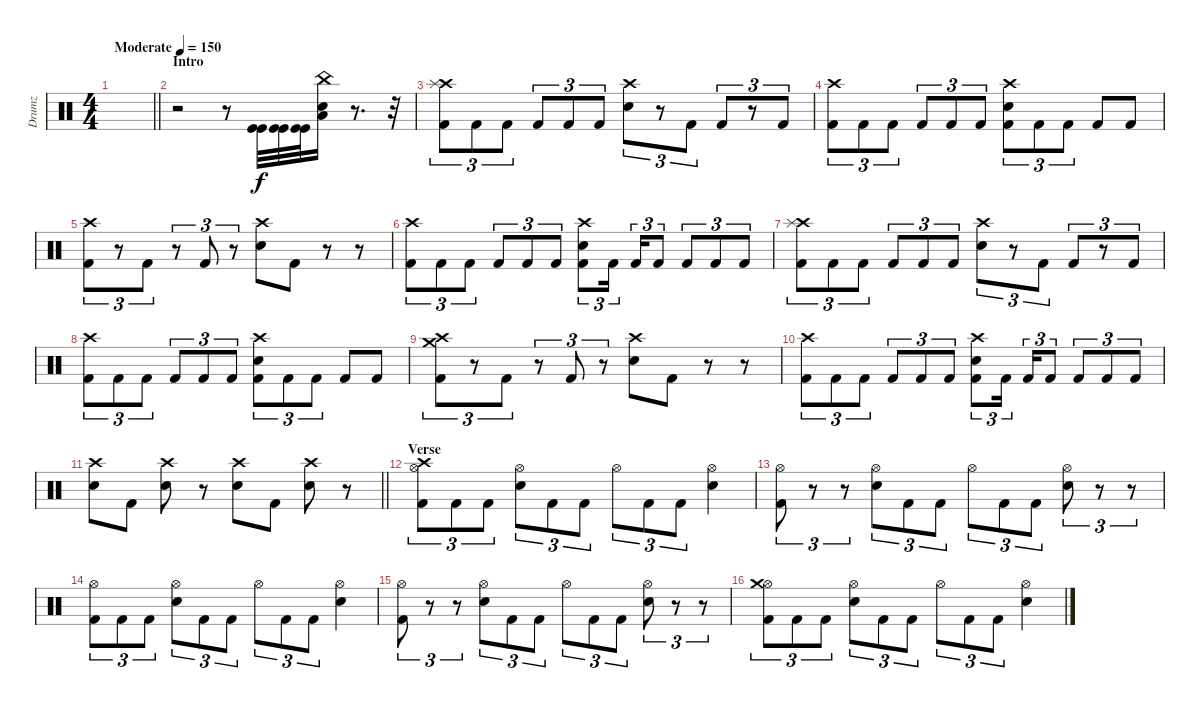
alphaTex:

\track ("Drumz" "Drumz") {instrument percussion}
\staff {score}
\articulation defaults
\ts (4 4)
\tempo (150 "Moderate")
\clef neutral
\barLineRight lightlight
\ks c
|
\section ("" "Intro")
r.2 r.8 ("Kick (hit)" "Kick (hit)").32 ("Kick (hit)" "Kick (hit)").32 ("Kick (hit)" "Kick (hit)").32 ("Low Floor Tom (hit)" "Snare (hit) 2" "China (hit)").16 r.8{d} r.32 |
("Kick (hit) 2" "Crash high (hit)" "Splash (hit)").8{tu (3 2)} "Kick (hit) 2".8{tu (3 2)} "Kick (hit) 2".8{tu (3 2)} "Kick (hit) 2".8{tu (3 2)} "Kick (hit) 2".8{tu (3 2)} "Kick (hit) 2".8{tu (3 2)} ("Crash high (hit)" "Snare (hit) 2").8{tu (3 2)} r.8{tu (3 2)} "Kick (hit) 2".8{tu (3 2)} "Kick (hit) 2".8{tu (3 2)} r.8{tu (3 2)} "Kick (hit) 2".8{tu (3 2)} |
("Kick (hit) 2" "Crash high (hit)").8{tu (3 2)} "Kick (hit) 2".8{tu (3 2)} "Kick (hit) 2".8{tu (3 2)} "Kick (hit) 2".8{tu (3 2)} "Kick (hit) 2".8{tu (3 2)} "Kick (hit) 2".8{tu (3 2)} ("Crash high (hit)" "Snare (hit) 2" "Kick (hit) 2").8{tu (3 2)} "Kick (hit) 2".8{tu (3 2)} "Kick (hit) 2".8{tu (3 2)} "Kick (hit) 2".8 "Kick (hit) 2".8 |
("Crash high (hit)" "Kick (hit) 2").8{tu (3 2)} r.8{tu (3 2)} "Kick (hit) 2".8{tu (3 2)} r.8{tu (3 2)} "Kick (hit) 2".8{tu (3 2)} r.8{tu (3 2)} ("Crash high (hit)" "Snare (hit) 2").8 "Kick (hit) 2".8 r.8 r.8 |
("Kick (hit) 2" "Crash high (hit)").8{tu (3 2)} "Kick (hit) 2".8{tu (3 2)} "Kick (hit) 2".8{tu (3 2)} "Kick (hit) 2".8{tu (3 2)} "Kick (hit) 2".8{tu (3 2)} "Kick (hit) 2".8{tu (3 2)} ("Crash high (hit)" "Snare (hit) 2" "Kick (hit) 2").8{tu (3 2)} "Kick (hit) 2".16{tu (3 2) beam splitsecondary} "Kick (hit) 2".16{tu (3 2)} "Kick (hit) 2".8{tu (3 2)} "Kick (hit) 2".8{tu (3 2)} "Kick (hit) 2".8{tu (3 2)} "Kick (hit) 2".8{tu (3 2)} |
("Kick (hit) 2" "Crash high (hit)" "Splash (hit)").8{tu (3 2)} "Kick (hit) 2".8{tu (3 2)} "Kick (hit) 2".8{tu (3 2)} "Kick (hit) 2".8{tu (3 2)} "Kick (hit) 2".8{tu (3 2)} "Kick (hit) 2".8{tu (3 2)} ("Crash high (hit)" "Snare (hit) 2").8{tu (3 2)} r.8{tu (3 2)} "Kick (hit) 2".8{tu (3 2)} "Kick (hit) 2".8{tu (3 2)} r.8{tu (3 2)} "Kick (hit) 2".8{tu (3 2)} |
("Kick (hit) 2" "Crash high (hit)").8{tu (3 2)} "Kick (hit) 2".8{tu (3 2)} "Kick (hit) 2".8{tu (3 2)} "Kick (hit) 2".8{tu (3 2)} "Kick (hit) 2".8{tu (3 2)} "Kick (hit) 2".8{tu (3 2)} ("Crash high (hit)" "Snare (hit) 2" "Kick (hit) 2").8{tu (3 2)} "Kick (hit) 2".8{tu (3 2)} "Kick (hit) 2".8{tu (3 2)} "Kick (hit) 2".8 "Kick (hit) 2".8 |
("Crash high (hit)" "Kick (hit) 2" "Crash medium (hit)").8{tu (3 2)} r.8{tu (3 2)} "Kick (hit) 2".8{tu (3 2)} r.8{tu (3 2)} "Kick (hit) 2".8{tu (3 2)} r.8{tu (3 2)} ("Crash high (hit)" "Snare (hit) 2").8 "Kick (hit) 2".8 r.8 r.8 |
("Kick (hit) 2" "Crash high (hit)").8{tu (3 2)} "Kick (hit) 2".8{tu (3 2)} "Kick (hit) 2".8{tu (3 2)} "Kick (hit) 2".8{tu (3 2)} "Kick (hit) 2".8{tu (3 2)} "Kick (hit) 2".8{tu (3 2)} ("Crash high (hit)" "Snare (hit) 2" "Kick (hit) 2").8{tu (3 2)} "Kick (hit) 2".16{tu (3 2) beam splitsecondary} "Kick (hit) 2".16{tu (3 2)} "Kick (hit) 2".8{tu (3 2)} "Kick (hit) 2".8{tu (3 2)} "Kick (hit) 2".8{tu (3 2)} "Kick (hit) 2".8{tu (3 2)} |
\barLineRight lightlight
("Crash high (hit)" "Electric Snare (hit)").8 "Kick (hit) 2".8 ("Crash high (hit)" "Electric Snare (hit)").8 r.8 ("Crash high (hit)" "Electric Snare (hit)").8 "Kick (hit) 2".8 ("Crash high (hit)" "Electric Snare (hit)").8 r.8 |
\section ("" "Verse")
("Hi-Hat (open)" "Kick (hit) 2" "Crash high (hit)").8{tu (3 2)} "Kick (hit) 2".8{tu (3 2)} "Kick (hit) 2".8{tu (3 2)} ("Hi-Hat (open)" "Snare (hit) 2").8{tu (3 2)} "Kick (hit) 2".8{tu (3 2)} "Kick (hit) 2".8{tu (3 2)} "Hi-Hat (open)".8{tu (3 2)} "Kick (hit) 2".8{tu (3 2)} "Kick (hit) 2".8{tu (3 2)} ("Hi-Hat (open)" "Snare (hit) 2").4 |
("Hi-Hat (open)" "Kick (hit) 2").8{tu (3 2)} r.8{tu (3 2)} r.8{tu (3 2)} ("Hi-Hat (open)" "Snare (hit) 2").8{tu (3 2)} "Kick (hit) 2".8{tu (3 2)} "Kick (hit) 2".8{tu (3 2)} "Hi-Hat (open)".8{tu (3 2)} "Kick (hit) 2".8{tu (3 2)} "Kick (hit) 2".8{tu (3 2)} ("Hi-Hat (open)" "Snare (hit) 2").8{tu (3 2)} r.8{tu (3 2)} r.8{tu (3 2)} |
("Hi-Hat (open)" "Kick (hit) 2").8{tu (3 2)} "Kick (hit) 2".8{tu (3 2)} "Kick (hit) 2".8{tu (3 2)} ("Hi-Hat (open)" "Snare (hit) 2").8{tu (3 2)} "Kick (hit) 2".8{tu (3 2)} "Kick (hit) 2".8{tu (3 2)} "Hi-Hat (open)".8{tu (3 2)} "Kick (hit) 2".8{tu (3 2)} "Kick (hit) 2".8{tu (3 2)} ("Hi-Hat (open)" "Snare (hit) 2").4 |
("Hi-Hat (open)" "Kick (hit) 2").8{tu (3 2)} r.8{tu (3 2)} r.8{tu (3 2)} ("Hi-Hat (open)" "Snare (hit) 2").8{tu (3 2)} "Kick (hit) 2".8{tu (3 2)} "Kick (hit) 2".8{tu (3 2)} "Hi-Hat (open)".8{tu (3 2)} "Kick (hit) 2".8{tu (3 2)} "Kick (hit) 2".8{tu (3 2)} ("Hi-Hat (open)" "Snare (hit) 2").8{tu (3 2)} r.8{tu (3 2)} r.8{tu (3 2)} |
("Kick (hit) 2" "Hi-Hat (open)" "Crash medium (hit)").8{tu (3 2)} "Kick (hit) 2".8{tu (3 2)} "Kick (hit) 2".8{tu (3 2)} ("Hi-Hat (open)" "Snare (hit) 2").8{tu (3 2)} "Kick (hit) 2".8{tu (3 2)} "Kick (hit) 2".8{tu (3 2)} "Hi-Hat (open)".8{tu (3 2)} "Kick (hit) 2".8{tu (3 2)} "Kick (hit) 2".8{tu (3 2)} ("Hi-Hat (open)" "Snare (hit) 2").4
